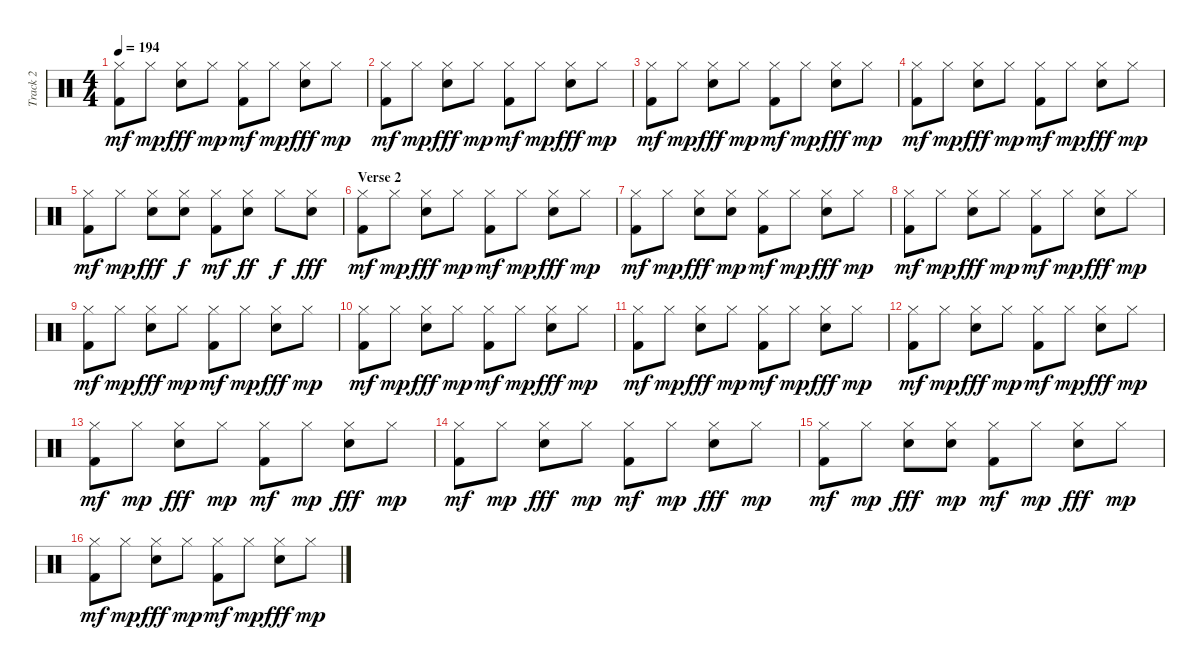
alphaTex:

\track ("Track 2" "Track 2") {instrument percussion}
\staff {score}
\articulation defaults
\ts (4 4)
\tempo 194
\clef neutral
\ks c
("Hi-Hat (closed)" "Kick (hit) 2").8{dy mf} "Hi-Hat (closed)".8{dy mp} ("Hi-Hat (closed)" "Snare (hit)").8{dy fff} "Hi-Hat (closed)".8{dy mp} ("Hi-Hat (closed)" "Kick (hit) 2").8{dy mf} "Hi-Hat (closed)".8{dy mp} ("Hi-Hat (closed)" "Snare (hit)").8{dy fff} "Hi-Hat (closed)".8{dy mp} |
("Hi-Hat (closed)" "Kick (hit) 2").8{dy mf} "Hi-Hat (closed)".8{dy mp} ("Hi-Hat (closed)" "Snare (hit)").8{dy fff} "Hi-Hat (closed)".8{dy mp} ("Hi-Hat (closed)" "Kick (hit) 2").8{dy mf} "Hi-Hat (closed)".8{dy mp} ("Hi-Hat (closed)" "Snare (hit)").8{dy fff} "Hi-Hat (closed)".8{dy mp} |
("Hi-Hat (closed)" "Kick (hit) 2").8{dy mf} "Hi-Hat (closed)".8{dy mp} ("Hi-Hat (closed)" "Snare (hit)").8{dy fff} "Hi-Hat (closed)".8{dy mp} ("Hi-Hat (closed)" "Kick (hit) 2").8{dy mf} "Hi-Hat (closed)".8{dy mp} ("Hi-Hat (closed)" "Snare (hit)").8{dy fff} "Hi-Hat (closed)".8{dy mp} |
("Hi-Hat (closed)" "Kick (hit) 2").8{dy mf} "Hi-Hat (closed)".8{dy mp} ("Hi-Hat (closed)" "Snare (hit)").8{dy fff} "Hi-Hat (closed)".8{dy mp} ("Hi-Hat (closed)" "Kick (hit) 2").8{dy mf} "Hi-Hat (closed)".8{dy mp} ("Hi-Hat (closed)" "Snare (hit)").8{dy fff} "Hi-Hat (closed)".8{dy mp} |
("Hi-Hat (closed)" "Kick (hit) 2").8{dy mf} "Hi-Hat (closed)".8{dy mp} ("Hi-Hat (closed)" "Snare (hit)").8{dy fff} ("Hi-Hat (closed)" "Snare (hit)").8{dy f} ("Hi-Hat (closed)" "Kick (hit) 2").8{dy mf} ("Hi-Hat (closed)" "Snare (hit)").8{dy ff} "Hi-Hat (closed)".8{dy f} ("Hi-Hat (closed)" "Snare (hit)").8{dy fff} |
\section ("" "Verse 2")
("Hi-Hat (closed)" "Kick (hit) 2").8{dy mf} "Hi-Hat (closed)".8{dy mp} ("Hi-Hat (closed)" "Snare (hit)").8{dy fff} "Hi-Hat (closed)".8{dy mp} ("Hi-Hat (closed)" "Kick (hit) 2").8{dy mf} "Hi-Hat (closed)".8{dy mp} ("Hi-Hat (closed)" "Snare (hit)").8{dy fff} "Hi-Hat (closed)".8{dy mp} |
("Hi-Hat (closed)" "Kick (hit) 2").8{dy mf} "Hi-Hat (closed)".8{dy mp} ("Hi-Hat (closed)" "Snare (hit)").8{dy fff} ("Hi-Hat (closed)" "Snare (hit)").8{dy mp} ("Hi-Hat (closed)" "Kick (hit) 2").8{dy mf} "Hi-Hat (closed)".8{dy mp} ("Hi-Hat (closed)" "Snare (hit)").8{dy fff} "Hi-Hat (closed)".8{dy mp} |
("Hi-Hat (closed)" "Kick (hit) 2").8{dy mf} "Hi-Hat (closed)".8{dy mp} ("Hi-Hat (closed)" "Snare (hit)").8{dy fff} "Hi-Hat (closed)".8{dy mp} ("Hi-Hat (closed)" "Kick (hit) 2").8{dy mf} "Hi-Hat (closed)".8{dy mp} ("Hi-Hat (closed)" "Snare (hit)").8{dy fff} "Hi-Hat (closed)".8{dy mp} |
("Hi-Hat (closed)" "Kick (hit) 2").8{dy mf} "Hi-Hat (closed)".8{dy mp} ("Hi-Hat (closed)" "Snare (hit)").8{dy fff} "Hi-Hat (closed)".8{dy mp} ("Hi-Hat (closed)" "Kick (hit) 2").8{dy mf} "Hi-Hat (closed)".8{dy mp} ("Hi-Hat (closed)" "Snare (hit)").8{dy fff} "Hi-Hat (closed)".8{dy mp} |
("Hi-Hat (closed)" "Kick (hit) 2").8{dy mf} "Hi-Hat (closed)".8{dy mp} ("Hi-Hat (closed)" "Snare (hit)").8{dy fff} "Hi-Hat (closed)".8{dy mp} ("Hi-Hat (closed)" "Kick (hit) 2").8{dy mf} "Hi-Hat (closed)".8{dy mp} ("Hi-Hat (closed)" "Snare (hit)").8{dy fff} "Hi-Hat (closed)".8{dy mp} |
("Hi-Hat (closed)" "Kick (hit) 2").8{dy mf} "Hi-Hat (closed)".8{dy mp} ("Hi-Hat (closed)" "Snare (hit)").8{dy fff} "Hi-Hat (closed)".8{dy mp} ("Hi-Hat (closed)" "Kick (hit) 2").8{dy mf} "Hi-Hat (closed)".8{dy mp} ("Hi-Hat (closed)" "Snare (hit)").8{dy fff} "Hi-Hat (closed)".8{dy mp} |
("Hi-Hat (closed)" "Kick (hit) 2").8{dy mf} "Hi-Hat (closed)".8{dy mp} ("Hi-Hat (closed)" "Snare (hit)").8{dy fff} "Hi-Hat (closed)".8{dy mp} ("Hi-Hat (closed)" "Kick (hit) 2").8{dy mf} "Hi-Hat (closed)".8{dy mp} ("Hi-Hat (closed)" "Snare (hit)").8{dy fff} "Hi-Hat (closed)".8{dy mp} |
("Hi-Hat (closed)" "Kick (hit) 2").8{dy mf} "Hi-Hat (closed)".8{dy mp} ("Hi-Hat (closed)" "Snare (hit)").8{dy fff} "Hi-Hat (closed)".8{dy mp} ("Hi-Hat (closed)" "Kick (hit) 2").8{dy mf} "Hi-Hat (closed)".8{dy mp} ("Hi-Hat (closed)" "Snare (hit)").8{dy fff} "Hi-Hat (closed)".8{dy mp} |
("Hi-Hat (closed)" "Kick (hit) 2").8{dy mf} "Hi-Hat (closed)".8{dy mp} ("Hi-Hat (closed)" "Snare (hit)").8{dy fff} "Hi-Hat (closed)".8{dy mp} ("Hi-Hat (closed)" "Kick (hit) 2").8{dy mf} "Hi-Hat (closed)".8{dy mp} ("Hi-Hat (closed)" "Snare (hit)").8{dy fff} "Hi-Hat (closed)".8{dy mp} |
("Hi-Hat (closed)" "Kick (hit) 2").8{dy mf} "Hi-Hat (closed)".8{dy mp} ("Hi-Hat (closed)" "Snare (hit)").8{dy fff} ("Hi-Hat (closed)" "Snare (hit)").8{dy mp} ("Hi-Hat (closed)" "Kick (hit) 2").8{dy mf} "Hi-Hat (closed)".8{dy mp} ("Hi-Hat (closed)" "Snare (hit)").8{dy fff} "Hi-Hat (closed)".8{dy mp} |
("Hi-Hat (closed)" "Kick (hit) 2").8{dy mf} "Hi-Hat (closed)".8{dy mp} ("Hi-Hat (closed)" "Snare (hit)").8{dy fff} "Hi-Hat (closed)".8{dy mp} ("Hi-Hat (closed)" "Kick (hit) 2").8{dy mf} "Hi-Hat (closed)".8{dy mp} ("Hi-Hat (closed)" "Snare (hit)").8{dy fff} "Hi-Hat (closed)".8{dy mp}
